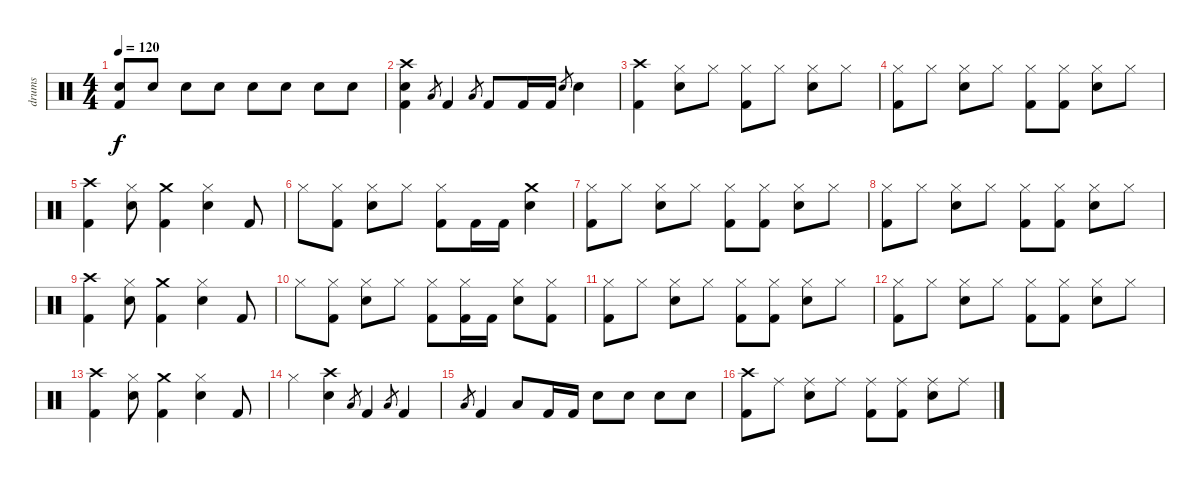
\track ("drums" "drums") {instrument percussion}
\staff {score}
\articulation defaults
\ts (4 4)
\tempo 120
\clef neutral
\ks c
("Electric Snare (hit)" "Kick (hit) 2").8{dy f} "Electric Snare (hit)".8 "Electric Snare (hit)".8 "Electric Snare (hit)".8 "Electric Snare (hit)".8 "Electric Snare (hit)".8 "Electric Snare (hit)".8 "Electric Snare (hit)".8 |
("Crash high (hit)" "Electric Snare (hit)" "Kick (hit) 2").4 "Low Floor Tom (hit)".8{gr} "Kick (hit) 2".4 "Low Floor Tom (hit)".8{gr} "Kick (hit) 2".8 "Kick (hit) 2".16 "Kick (hit) 2".16 "Electric Snare (hit)".8{gr} "Electric Snare (hit)".4 |
("Crash high (hit)" "Kick (hit) 2").4 ("Hi-Hat (closed)" "Electric Snare (hit)").8 "Hi-Hat (closed)".8 ("Hi-Hat (closed)" "Kick (hit) 2").8 "Hi-Hat (closed)".8 ("Hi-Hat (closed)" "Electric Snare (hit)").8 "Hi-Hat (closed)".8 |
("Hi-Hat (closed)" "Kick (hit) 2").8 "Hi-Hat (closed)".8 ("Hi-Hat (closed)" "Electric Snare (hit)").8 "Hi-Hat (closed)".8 ("Hi-Hat (closed)" "Kick (hit) 2").8 ("Hi-Hat (closed)" "Kick (hit) 2").8 ("Hi-Hat (closed)" "Electric Snare (hit)").8 "Hi-Hat (closed)".8 |
("Crash high (hit)" "Kick (hit) 2").4 ("Hi-Hat (closed)" "Electric Snare (hit)").8 ("Crash medium (hit)" "Kick (hit) 2").4 ("Hi-Hat (closed)" "Electric Snare (hit)").4 "Kick (hit) 2".8 |
"Hi-Hat (closed)".8 ("Hi-Hat (closed)" "Kick (hit) 2").8 ("Hi-Hat (closed)" "Electric Snare (hit)").8 "Hi-Hat (closed)".8 ("Hi-Hat (closed)" "Kick (hit) 2").8 "Kick (hit) 2".16 "Kick (hit) 2".16 ("Crash medium (hit)" "Electric Snare (hit)").4 |
("Hi-Hat (closed)" "Kick (hit) 2").8 "Hi-Hat (closed)".8 ("Hi-Hat (closed)" "Electric Snare (hit)").8 "Hi-Hat (closed)".8 ("Hi-Hat (closed)" "Kick (hit) 2").8 ("Hi-Hat (closed)" "Kick (hit) 2").8 ("Hi-Hat (closed)" "Electric Snare (hit)").8 "Hi-Hat (closed)".8 |
("Hi-Hat (closed)" "Kick (hit) 2").8 "Hi-Hat (closed)".8 ("Hi-Hat (closed)" "Electric Snare (hit)").8 "Hi-Hat (closed)".8 ("Hi-Hat (closed)" "Kick (hit) 2").8 ("Hi-Hat (closed)" "Kick (hit) 2").8 ("Hi-Hat (closed)" "Electric Snare (hit)").8 "Hi-Hat (closed)".8 |
("Crash high (hit)" "Kick (hit) 2").4 ("Hi-Hat (closed)" "Electric Snare (hit)").8 ("Crash medium (hit)" "Kick (hit) 2").4 ("Hi-Hat (closed)" "Electric Snare (hit)").4 "Kick (hit) 2".8 |
"Hi-Hat (closed)".8 ("Hi-Hat (closed)" "Kick (hit) 2").8 ("Hi-Hat (closed)" "Electric Snare (hit)").8 "Hi-Hat (closed)".8 ("Hi-Hat (closed)" "Kick (hit) 2").8 ("Hi-Hat (closed)" "Kick (hit) 2").16 "Kick (hit) 2".16 ("Hi-Hat (closed)" "Electric Snare (hit)").8 ("Hi-Hat (closed)" "Kick (hit) 2").8 |
("Hi-Hat (closed)" "Kick (hit) 2").8 "Hi-Hat (closed)".8 ("Hi-Hat (closed)" "Electric Snare (hit)").8 "Hi-Hat (closed)".8 ("Hi-Hat (closed)" "Kick (hit) 2").8 ("Hi-Hat (closed)" "Kick (hit) 2").8 ("Hi-Hat (closed)" "Electric Snare (hit)").8 "Hi-Hat (closed)".8 |
("Hi-Hat (closed)" "Kick (hit) 2").8 "Hi-Hat (closed)".8 ("Hi-Hat (closed)" "Electric Snare (hit)").8 "Hi-Hat (closed)".8 ("Hi-Hat (closed)" "Kick (hit) 2").8 ("Hi-Hat (closed)" "Kick (hit) 2").8 ("Hi-Hat (closed)" "Electric Snare (hit)").8 "Hi-Hat (closed)".8 |
("Crash high (hit)" "Kick (hit) 2").4 ("Hi-Hat (closed)" "Electric Snare (hit)").8 ("Crash medium (hit)" "Kick (hit) 2").4 ("Hi-Hat (closed)" "Electric Snare (hit)").4 "Kick (hit) 2".8 |
"Hi-Hat (closed)".4 ("Crash high (hit)" "Electric Snare (hit)").4 "Low Floor Tom (hit)".8{gr} "Kick (hit) 2".4 "Low Floor Tom (hit)".8{gr} "Kick (hit) 2".4 |
"Low Floor Tom (hit)".8{gr} "Kick (hit) 2".4 "Low Floor Tom (hit)".8 "Kick (hit) 2".16 "Kick (hit) 2".16 "Electric Snare (hit)".8 "Electric Snare (hit)".8 "Electric Snare (hit)".8 "Electric Snare (hit)".8 |
("Crash high (hit)" "Kick (hit) 2").8 "Ride (middle)".8 ("Ride (middle)" "Electric Snare (hit)").8 "Ride (middle)".8 ("Ride (middle)" "Kick (hit) 2").8 ("Ride (middle)" "Kick (hit) 2").8 ("Ride (middle)" "Electric Snare (hit)").8 "Ride (middle)".8
